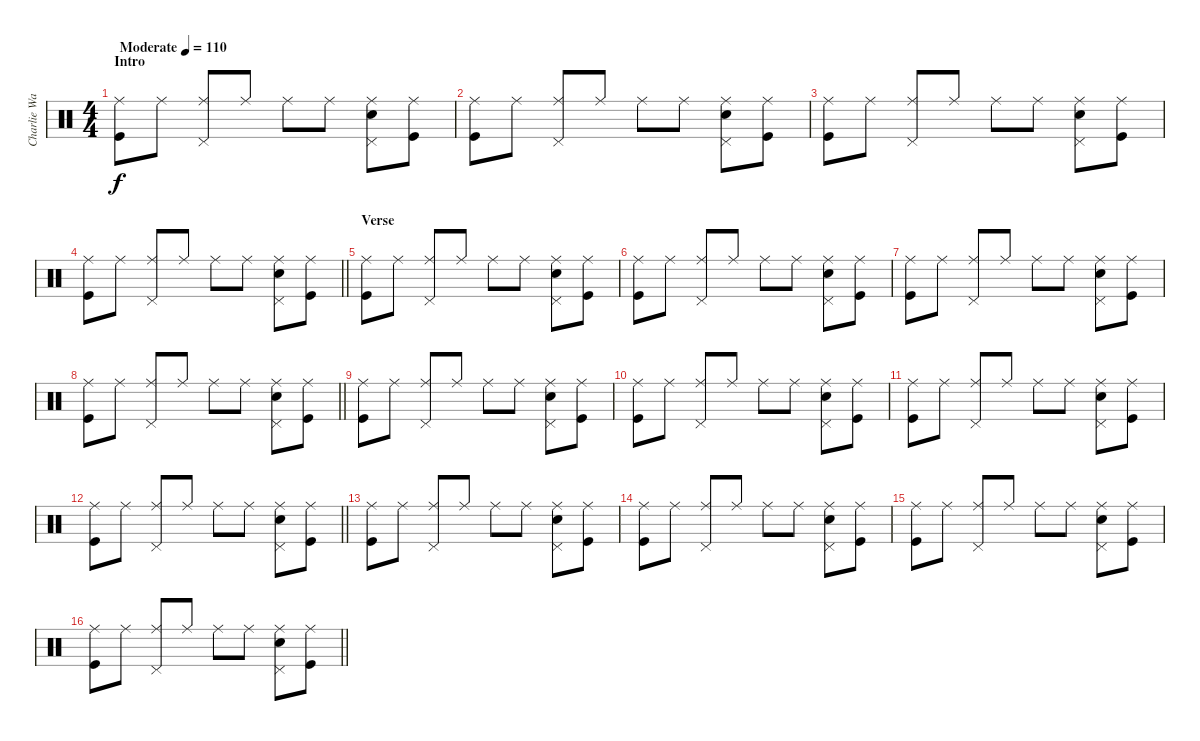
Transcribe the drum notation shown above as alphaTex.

\track ("Charlie Watts" "Charlie Wa") {instrument percussion}
\staff {score}
\articulation defaults
\ts (4 4)
\section ("" "Intro")
\tempo (110 "Moderate")
\clef neutral
\ks c
("Ride (middle)" "Kick (hit)").8{dy f} "Ride (middle)".8 ("Ride (middle)" "Pedal Hi-Hat (hit)").8 "Ride (middle)".8 "Ride (middle)".8 "Ride (middle)".8 ("Ride (middle)" "Snare (hit) 2" "Pedal Hi-Hat (hit)").8 ("Ride (middle)" "Kick (hit)").8 |
("Ride (middle)" "Kick (hit)").8 "Ride (middle)".8 ("Ride (middle)" "Pedal Hi-Hat (hit)").8 "Ride (middle)".8 "Ride (middle)".8 "Ride (middle)".8 ("Ride (middle)" "Snare (hit) 2" "Pedal Hi-Hat (hit)").8 ("Ride (middle)" "Kick (hit)").8 |
("Ride (middle)" "Kick (hit)").8 "Ride (middle)".8 ("Ride (middle)" "Pedal Hi-Hat (hit)").8 "Ride (middle)".8 "Ride (middle)".8 "Ride (middle)".8 ("Ride (middle)" "Snare (hit) 2" "Pedal Hi-Hat (hit)").8 ("Ride (middle)" "Kick (hit)").8 |
\barLineRight lightlight
("Ride (middle)" "Kick (hit)").8 "Ride (middle)".8 ("Ride (middle)" "Pedal Hi-Hat (hit)").8 "Ride (middle)".8 "Ride (middle)".8 "Ride (middle)".8 ("Ride (middle)" "Snare (hit) 2" "Pedal Hi-Hat (hit)").8 ("Ride (middle)" "Kick (hit)").8 |
\section ("" "Verse")
("Ride (middle)" "Kick (hit)").8 "Ride (middle)".8 ("Ride (middle)" "Pedal Hi-Hat (hit)").8 "Ride (middle)".8 "Ride (middle)".8 "Ride (middle)".8 ("Ride (middle)" "Snare (hit) 2" "Pedal Hi-Hat (hit)").8 ("Ride (middle)" "Kick (hit)").8 |
("Ride (middle)" "Kick (hit)").8 "Ride (middle)".8 ("Ride (middle)" "Pedal Hi-Hat (hit)").8 "Ride (middle)".8 "Ride (middle)".8 "Ride (middle)".8 ("Ride (middle)" "Snare (hit) 2" "Pedal Hi-Hat (hit)").8 ("Ride (middle)" "Kick (hit)").8 |
("Ride (middle)" "Kick (hit)").8 "Ride (middle)".8 ("Ride (middle)" "Pedal Hi-Hat (hit)").8 "Ride (middle)".8 "Ride (middle)".8 "Ride (middle)".8 ("Ride (middle)" "Snare (hit) 2" "Pedal Hi-Hat (hit)").8 ("Ride (middle)" "Kick (hit)").8 |
\barLineRight lightlight
("Ride (middle)" "Kick (hit)").8 "Ride (middle)".8 ("Ride (middle)" "Pedal Hi-Hat (hit)").8 "Ride (middle)".8 "Ride (middle)".8 "Ride (middle)".8 ("Ride (middle)" "Snare (hit) 2" "Pedal Hi-Hat (hit)").8 ("Ride (middle)" "Kick (hit)").8 |
("Ride (middle)" "Kick (hit)").8 "Ride (middle)".8 ("Ride (middle)" "Pedal Hi-Hat (hit)").8 "Ride (middle)".8 "Ride (middle)".8 "Ride (middle)".8 ("Ride (middle)" "Snare (hit) 2" "Pedal Hi-Hat (hit)").8 ("Ride (middle)" "Kick (hit)").8 |
("Ride (middle)" "Kick (hit)").8 "Ride (middle)".8 ("Ride (middle)" "Pedal Hi-Hat (hit)").8 "Ride (middle)".8 "Ride (middle)".8 "Ride (middle)".8 ("Ride (middle)" "Snare (hit) 2" "Pedal Hi-Hat (hit)").8 ("Ride (middle)" "Kick (hit)").8 |
("Ride (middle)" "Kick (hit)").8 "Ride (middle)".8 ("Ride (middle)" "Pedal Hi-Hat (hit)").8 "Ride (middle)".8 "Ride (middle)".8 "Ride (middle)".8 ("Ride (middle)" "Snare (hit) 2" "Pedal Hi-Hat (hit)").8 ("Ride (middle)" "Kick (hit)").8 |
\barLineRight lightlight
("Ride (middle)" "Kick (hit)").8 "Ride (middle)".8 ("Ride (middle)" "Pedal Hi-Hat (hit)").8 "Ride (middle)".8 "Ride (middle)".8 "Ride (middle)".8 ("Ride (middle)" "Snare (hit) 2" "Pedal Hi-Hat (hit)").8 ("Ride (middle)" "Kick (hit)").8 |
("Ride (middle)" "Kick (hit)").8 "Ride (middle)".8 ("Ride (middle)" "Pedal Hi-Hat (hit)").8 "Ride (middle)".8 "Ride (middle)".8 "Ride (middle)".8 ("Ride (middle)" "Snare (hit) 2" "Pedal Hi-Hat (hit)").8 ("Ride (middle)" "Kick (hit)").8 |
("Ride (middle)" "Kick (hit)").8 "Ride (middle)".8 ("Ride (middle)" "Pedal Hi-Hat (hit)").8 "Ride (middle)".8 "Ride (middle)".8 "Ride (middle)".8 ("Ride (middle)" "Snare (hit) 2" "Pedal Hi-Hat (hit)").8 ("Ride (middle)" "Kick (hit)").8 |
("Ride (middle)" "Kick (hit)").8 "Ride (middle)".8 ("Ride (middle)" "Pedal Hi-Hat (hit)").8 "Ride (middle)".8 "Ride (middle)".8 "Ride (middle)".8 ("Ride (middle)" "Snare (hit) 2" "Pedal Hi-Hat (hit)").8 ("Ride (middle)" "Kick (hit)").8 |
\barLineRight lightlight
("Ride (middle)" "Kick (hit)").8 "Ride (middle)".8 ("Ride (middle)" "Pedal Hi-Hat (hit)").8 "Ride (middle)".8 "Ride (middle)".8 "Ride (middle)".8 ("Ride (middle)" "Snare (hit) 2" "Pedal Hi-Hat (hit)").8 ("Ride (middle)" "Kick (hit)").8
